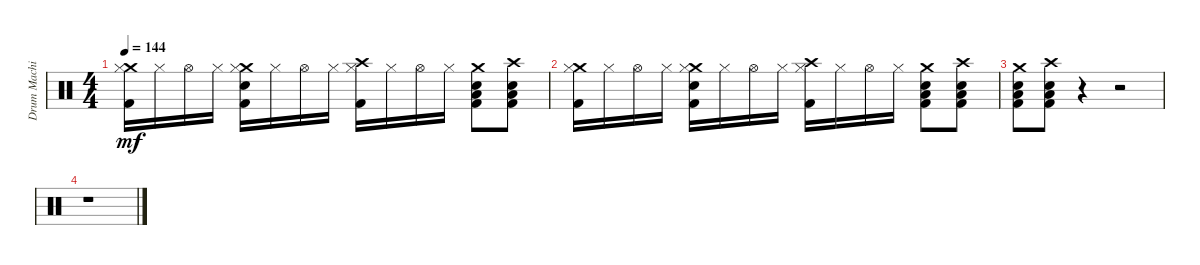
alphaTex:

\track ("Drum Machine" "Drum Machi") {instrument percussion}
\staff {score}
\articulation defaults
\ts (4 4)
\tempo 144
\clef neutral
\ks c
("Crash medium (hit)" "Hi-Hat (closed)" "Kick (hit) 2").16{dy mf} "Hi-Hat (closed)".16 "Hi-Hat (open)".16 "Hi-Hat (closed)".16 ("Crash medium (hit)" "Hi-Hat (closed)" "Hand Clap (hit)" "Kick (hit) 2").16 "Hi-Hat (closed)".16 "Hi-Hat (open)".16 "Hi-Hat (closed)".16 ("Crash high (hit)" "Hi-Hat (closed)" "Kick (hit) 2").16 "Hi-Hat (closed)".16 "Hi-Hat (open)".16 "Hi-Hat (closed)".16 ("Crash medium (hit)" "Hand Clap (hit)" "Low Floor Tom (hit)" "Kick (hit) 2").8 ("Crash high (hit)" "Hand Clap (hit)" "Low Floor Tom (hit)" "Kick (hit) 2").8 |
("Crash medium (hit)" "Hi-Hat (closed)" "Kick (hit) 2").16 "Hi-Hat (closed)".16 "Hi-Hat (open)".16 "Hi-Hat (closed)".16 ("Crash medium (hit)" "Hi-Hat (closed)" "Hand Clap (hit)" "Kick (hit) 2").16 "Hi-Hat (closed)".16 "Hi-Hat (open)".16 "Hi-Hat (closed)".16 ("Crash high (hit)" "Hi-Hat (closed)" "Kick (hit) 2").16 "Hi-Hat (closed)".16 "Hi-Hat (open)".16 "Hi-Hat (closed)".16 ("Crash medium (hit)" "Hand Clap (hit)" "Low Floor Tom (hit)" "Kick (hit) 2").8 ("Crash high (hit)" "Hand Clap (hit)" "Low Floor Tom (hit)" "Kick (hit) 2").8 |
("Crash medium (hit)" "Electric Snare (hit)" "Low Floor Tom (hit)" "Kick (hit) 2").8 ("Crash high (hit)" "Electric Snare (hit)" "Low Floor Tom (hit)" "Kick (hit) 2").8 r.4 r.2 |
r.1
